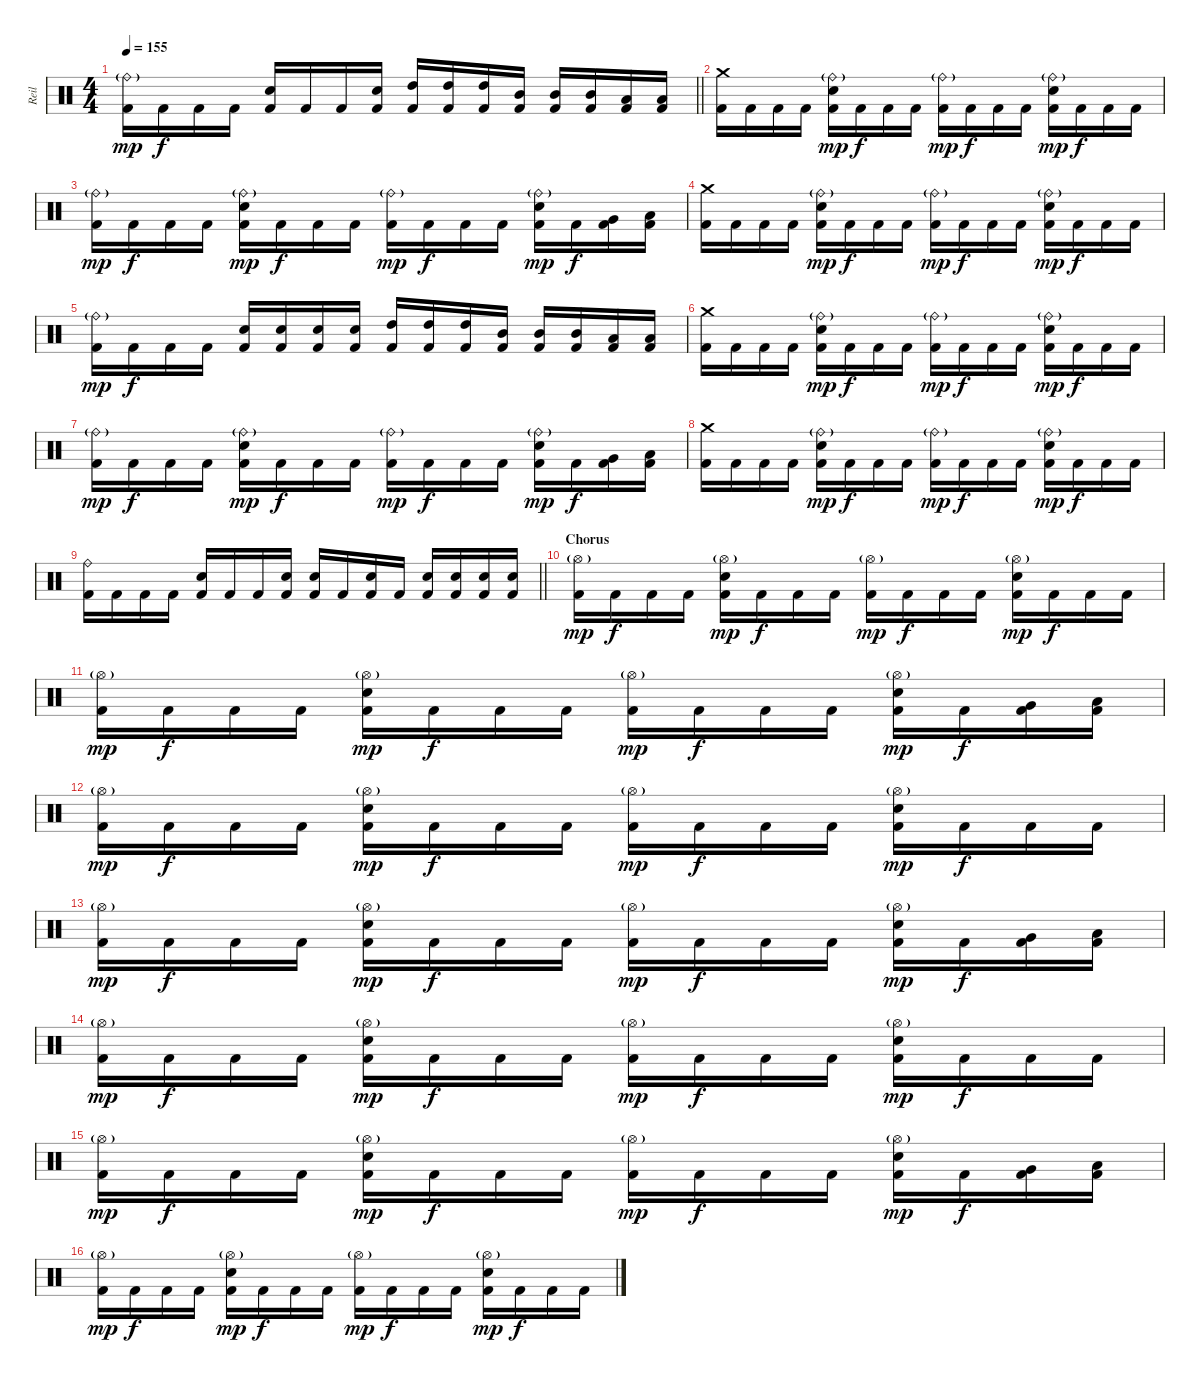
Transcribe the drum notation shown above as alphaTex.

\track ("Reil" "Reil") {instrument percussion}
\staff {score}
\articulation defaults
\ts (4 4)
\tempo 155
\clef neutral
\barLineRight lightlight
\ks c
("Ride (bell)"{g} "Kick (hit) 2").16{dy mp} "Kick (hit) 2".16{dy f} "Kick (hit) 2".16 "Kick (hit) 2".16 ("Electric Snare (hit)" "Kick (hit) 2").16 "Kick (hit) 2".16 "Kick (hit) 2".16 ("Electric Snare (hit)" "Kick (hit) 2").16 ("High Tom (hit)" "Kick (hit) 2").16 ("High Tom (hit)" "Kick (hit) 2").16 ("High Tom (hit)" "Kick (hit) 2").16 ("Mid Tom (hit)" "Kick (hit) 2").16 ("Mid Tom (hit)" "Kick (hit) 2").16 ("Mid Tom (hit)" "Kick (hit) 2").16 ("Low Tom (hit)" "Kick (hit) 2").16 ("Low Tom (hit)" "Kick (hit) 2").16 |
("Crash medium (hit)" "Kick (hit) 2").16 "Kick (hit) 2".16 "Kick (hit) 2".16 "Kick (hit) 2".16 ("Ride (bell)"{g} "Electric Snare (hit)" "Kick (hit) 2").16{dy mp} "Kick (hit) 2".16{dy f} "Kick (hit) 2".16 "Kick (hit) 2".16 ("Ride (bell)"{g} "Kick (hit) 2").16{dy mp} "Kick (hit) 2".16{dy f} "Kick (hit) 2".16 "Kick (hit) 2".16 ("Ride (bell)"{g} "Electric Snare (hit)" "Kick (hit) 2").16{dy mp} "Kick (hit) 2".16{dy f} "Kick (hit) 2".16 "Kick (hit) 2".16 |
("Ride (bell)"{g} "Kick (hit) 2").16{dy mp} "Kick (hit) 2".16{dy f} "Kick (hit) 2".16 "Kick (hit) 2".16 ("Ride (bell)"{g} "Electric Snare (hit)" "Kick (hit) 2").16{dy mp} "Kick (hit) 2".16{dy f} "Kick (hit) 2".16 "Kick (hit) 2".16 ("Ride (bell)"{g} "Kick (hit) 2").16{dy mp} "Kick (hit) 2".16{dy f} "Kick (hit) 2".16 "Kick (hit) 2".16 ("Ride (bell)"{g} "Electric Snare (hit)" "Kick (hit) 2").16{dy mp} "Kick (hit) 2".16{dy f} ("Very Low Tom (hit)" "Kick (hit) 2").16 ("Low Floor Tom (hit)" "Kick (hit) 2").16 |
("Crash medium (hit)" "Kick (hit) 2").16 "Kick (hit) 2".16 "Kick (hit) 2".16 "Kick (hit) 2".16 ("Ride (bell)"{g} "Electric Snare (hit)" "Kick (hit) 2").16{dy mp} "Kick (hit) 2".16{dy f} "Kick (hit) 2".16 "Kick (hit) 2".16 ("Ride (bell)"{g} "Kick (hit) 2").16{dy mp} "Kick (hit) 2".16{dy f} "Kick (hit) 2".16 "Kick (hit) 2".16 ("Ride (bell)"{g} "Electric Snare (hit)" "Kick (hit) 2").16{dy mp} "Kick (hit) 2".16{dy f} "Kick (hit) 2".16 "Kick (hit) 2".16 |
("Ride (bell)"{g} "Kick (hit) 2").16{dy mp} "Kick (hit) 2".16{dy f} "Kick (hit) 2".16 "Kick (hit) 2".16 ("Electric Snare (hit)" "Kick (hit) 2").16 ("Electric Snare (hit)" "Kick (hit) 2").16 ("Electric Snare (hit)" "Kick (hit) 2").16 ("Electric Snare (hit)" "Kick (hit) 2").16 ("High Tom (hit)" "Kick (hit) 2").16 ("High Tom (hit)" "Kick (hit) 2").16 ("High Tom (hit)" "Kick (hit) 2").16 ("Mid Tom (hit)" "Kick (hit) 2").16 ("Mid Tom (hit)" "Kick (hit) 2").16 ("Mid Tom (hit)" "Kick (hit) 2").16 ("Low Tom (hit)" "Kick (hit) 2").16 ("Low Tom (hit)" "Kick (hit) 2").16 |
("Crash medium (hit)" "Kick (hit) 2").16 "Kick (hit) 2".16 "Kick (hit) 2".16 "Kick (hit) 2".16 ("Ride (bell)"{g} "Electric Snare (hit)" "Kick (hit) 2").16{dy mp} "Kick (hit) 2".16{dy f} "Kick (hit) 2".16 "Kick (hit) 2".16 ("Ride (bell)"{g} "Kick (hit) 2").16{dy mp} "Kick (hit) 2".16{dy f} "Kick (hit) 2".16 "Kick (hit) 2".16 ("Ride (bell)"{g} "Electric Snare (hit)" "Kick (hit) 2").16{dy mp} "Kick (hit) 2".16{dy f} "Kick (hit) 2".16 "Kick (hit) 2".16 |
("Ride (bell)"{g} "Kick (hit) 2").16{dy mp} "Kick (hit) 2".16{dy f} "Kick (hit) 2".16 "Kick (hit) 2".16 ("Ride (bell)"{g} "Electric Snare (hit)" "Kick (hit) 2").16{dy mp} "Kick (hit) 2".16{dy f} "Kick (hit) 2".16 "Kick (hit) 2".16 ("Ride (bell)"{g} "Kick (hit) 2").16{dy mp} "Kick (hit) 2".16{dy f} "Kick (hit) 2".16 "Kick (hit) 2".16 ("Ride (bell)"{g} "Electric Snare (hit)" "Kick (hit) 2").16{dy mp} "Kick (hit) 2".16{dy f} ("Very Low Tom (hit)" "Kick (hit) 2").16 ("Low Floor Tom (hit)" "Kick (hit) 2").16 |
("Crash medium (hit)" "Kick (hit) 2").16 "Kick (hit) 2".16 "Kick (hit) 2".16 "Kick (hit) 2".16 ("Ride (bell)"{g} "Electric Snare (hit)" "Kick (hit) 2").16{dy mp} "Kick (hit) 2".16{dy f} "Kick (hit) 2".16 "Kick (hit) 2".16 ("Ride (bell)"{g} "Kick (hit) 2").16{dy mp} "Kick (hit) 2".16{dy f} "Kick (hit) 2".16 "Kick (hit) 2".16 ("Ride (bell)"{g} "Electric Snare (hit)" "Kick (hit) 2").16{dy mp} "Kick (hit) 2".16{dy f} "Kick (hit) 2".16 "Kick (hit) 2".16 |
\barLineRight lightlight
("Ride (bell)" "Kick (hit) 2").16 "Kick (hit) 2".16 "Kick (hit) 2".16 "Kick (hit) 2".16 ("Electric Snare (hit)" "Kick (hit) 2").16 "Kick (hit) 2".16 "Kick (hit) 2".16 ("Electric Snare (hit)" "Kick (hit) 2").16 ("Electric Snare (hit)" "Kick (hit) 2").16 "Kick (hit) 2".16 ("Electric Snare (hit)" "Kick (hit) 2").16 "Kick (hit) 2".16 ("Electric Snare (hit)" "Kick (hit) 2").16 ("Electric Snare (hit)" "Kick (hit) 2").16 ("Electric Snare (hit)" "Kick (hit) 2").16 ("Electric Snare (hit)" "Kick (hit) 2").16 |
\section ("" "Chorus")
("Hi-Hat (open)"{g} "Kick (hit) 2").16{dy mp} "Kick (hit) 2".16{dy f} "Kick (hit) 2".16 "Kick (hit) 2".16 ("Hi-Hat (open)"{g} "Electric Snare (hit)" "Kick (hit) 2").16{dy mp} "Kick (hit) 2".16{dy f} "Kick (hit) 2".16 "Kick (hit) 2".16 ("Hi-Hat (open)"{g} "Kick (hit) 2").16{dy mp} "Kick (hit) 2".16{dy f} "Kick (hit) 2".16 "Kick (hit) 2".16 ("Hi-Hat (open)"{g} "Electric Snare (hit)" "Kick (hit) 2").16{dy mp} "Kick (hit) 2".16{dy f} "Kick (hit) 2".16 "Kick (hit) 2".16 |
("Hi-Hat (open)"{g} "Kick (hit) 2").16{dy mp} "Kick (hit) 2".16{dy f} "Kick (hit) 2".16 "Kick (hit) 2".16 ("Hi-Hat (open)"{g} "Electric Snare (hit)" "Kick (hit) 2").16{dy mp} "Kick (hit) 2".16{dy f} "Kick (hit) 2".16 "Kick (hit) 2".16 ("Hi-Hat (open)"{g} "Kick (hit) 2").16{dy mp} "Kick (hit) 2".16{dy f} "Kick (hit) 2".16 "Kick (hit) 2".16 ("Hi-Hat (open)"{g} "Electric Snare (hit)" "Kick (hit) 2").16{dy mp} "Kick (hit) 2".16{dy f} ("Very Low Tom (hit)" "Kick (hit) 2").16 ("Low Floor Tom (hit)" "Kick (hit) 2").16 |
("Hi-Hat (open)"{g} "Kick (hit) 2").16{dy mp} "Kick (hit) 2".16{dy f} "Kick (hit) 2".16 "Kick (hit) 2".16 ("Hi-Hat (open)"{g} "Electric Snare (hit)" "Kick (hit) 2").16{dy mp} "Kick (hit) 2".16{dy f} "Kick (hit) 2".16 "Kick (hit) 2".16 ("Hi-Hat (open)"{g} "Kick (hit) 2").16{dy mp} "Kick (hit) 2".16{dy f} "Kick (hit) 2".16 "Kick (hit) 2".16 ("Hi-Hat (open)"{g} "Electric Snare (hit)" "Kick (hit) 2").16{dy mp} "Kick (hit) 2".16{dy f} "Kick (hit) 2".16 "Kick (hit) 2".16 |
("Hi-Hat (open)"{g} "Kick (hit) 2").16{dy mp} "Kick (hit) 2".16{dy f} "Kick (hit) 2".16 "Kick (hit) 2".16 ("Hi-Hat (open)"{g} "Electric Snare (hit)" "Kick (hit) 2").16{dy mp} "Kick (hit) 2".16{dy f} "Kick (hit) 2".16 "Kick (hit) 2".16 ("Hi-Hat (open)"{g} "Kick (hit) 2").16{dy mp} "Kick (hit) 2".16{dy f} "Kick (hit) 2".16 "Kick (hit) 2".16 ("Hi-Hat (open)"{g} "Electric Snare (hit)" "Kick (hit) 2").16{dy mp} "Kick (hit) 2".16{dy f} ("Very Low Tom (hit)" "Kick (hit) 2").16 ("Low Floor Tom (hit)" "Kick (hit) 2").16 |
("Hi-Hat (open)"{g} "Kick (hit) 2").16{dy mp} "Kick (hit) 2".16{dy f} "Kick (hit) 2".16 "Kick (hit) 2".16 ("Hi-Hat (open)"{g} "Electric Snare (hit)" "Kick (hit) 2").16{dy mp} "Kick (hit) 2".16{dy f} "Kick (hit) 2".16 "Kick (hit) 2".16 ("Hi-Hat (open)"{g} "Kick (hit) 2").16{dy mp} "Kick (hit) 2".16{dy f} "Kick (hit) 2".16 "Kick (hit) 2".16 ("Hi-Hat (open)"{g} "Electric Snare (hit)" "Kick (hit) 2").16{dy mp} "Kick (hit) 2".16{dy f} "Kick (hit) 2".16 "Kick (hit) 2".16 |
("Hi-Hat (open)"{g} "Kick (hit) 2").16{dy mp} "Kick (hit) 2".16{dy f} "Kick (hit) 2".16 "Kick (hit) 2".16 ("Hi-Hat (open)"{g} "Electric Snare (hit)" "Kick (hit) 2").16{dy mp} "Kick (hit) 2".16{dy f} "Kick (hit) 2".16 "Kick (hit) 2".16 ("Hi-Hat (open)"{g} "Kick (hit) 2").16{dy mp} "Kick (hit) 2".16{dy f} "Kick (hit) 2".16 "Kick (hit) 2".16 ("Hi-Hat (open)"{g} "Electric Snare (hit)" "Kick (hit) 2").16{dy mp} "Kick (hit) 2".16{dy f} ("Very Low Tom (hit)" "Kick (hit) 2").16 ("Low Floor Tom (hit)" "Kick (hit) 2").16 |
("Hi-Hat (open)"{g} "Kick (hit) 2").16{dy mp} "Kick (hit) 2".16{dy f} "Kick (hit) 2".16 "Kick (hit) 2".16 ("Hi-Hat (open)"{g} "Electric Snare (hit)" "Kick (hit) 2").16{dy mp} "Kick (hit) 2".16{dy f} "Kick (hit) 2".16 "Kick (hit) 2".16 ("Hi-Hat (open)"{g} "Kick (hit) 2").16{dy mp} "Kick (hit) 2".16{dy f} "Kick (hit) 2".16 "Kick (hit) 2".16 ("Hi-Hat (open)"{g} "Electric Snare (hit)" "Kick (hit) 2").16{dy mp} "Kick (hit) 2".16{dy f} "Kick (hit) 2".16 "Kick (hit) 2".16
